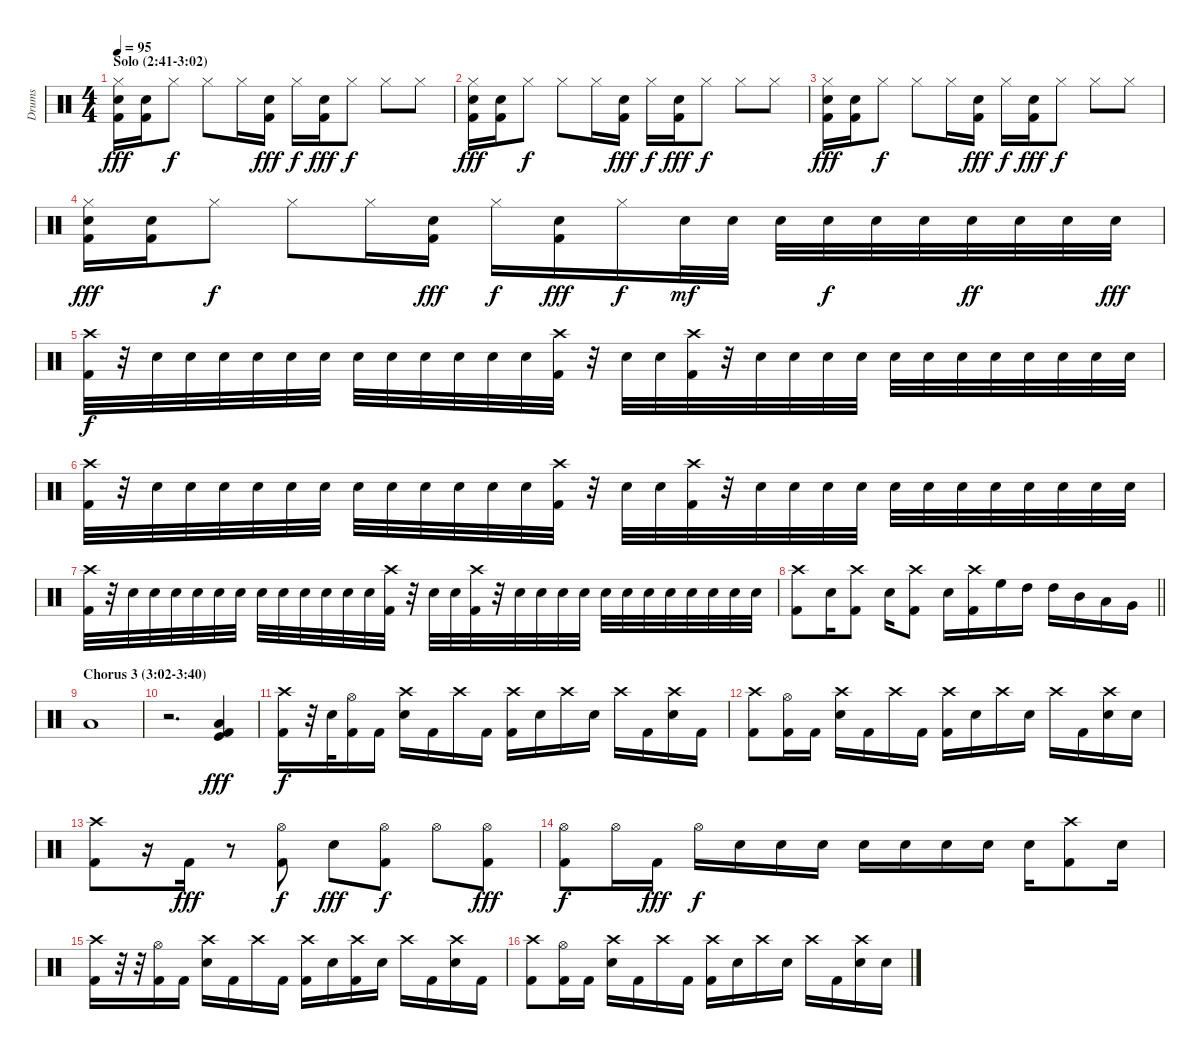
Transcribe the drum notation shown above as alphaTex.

\track ("Drums" "Drums") {instrument percussion}
\staff {score}
\articulation defaults
\ts (4 4)
\section ("" "Solo (2:41-3:02)")
\tempo 95
\clef neutral
\ks c
("Hi-Hat (closed)" "Kick (hit) 2" "Snare (hit) 2").16{dy fff} ("Kick (hit) 2" "Snare (hit) 2").16 "Hi-Hat (closed)".8{dy f} "Hi-Hat (closed)".8 "Hi-Hat (closed)".16 ("Kick (hit) 2" "Snare (hit) 2").16{dy fff} "Hi-Hat (closed)".16{dy f} ("Kick (hit) 2" "Snare (hit) 2").16{dy fff} "Hi-Hat (closed)".8{dy f} "Hi-Hat (closed)".8 "Hi-Hat (closed)".8 |
("Hi-Hat (closed)" "Kick (hit) 2" "Snare (hit) 2").16{dy fff} ("Kick (hit) 2" "Snare (hit) 2").16 "Hi-Hat (closed)".8{dy f} "Hi-Hat (closed)".8 "Hi-Hat (closed)".16 ("Kick (hit) 2" "Snare (hit) 2").16{dy fff} "Hi-Hat (closed)".16{dy f} ("Kick (hit) 2" "Snare (hit) 2").16{dy fff} "Hi-Hat (closed)".8{dy f} "Hi-Hat (closed)".8 "Hi-Hat (closed)".8 |
("Hi-Hat (closed)" "Kick (hit) 2" "Snare (hit) 2").16{dy fff} ("Kick (hit) 2" "Snare (hit) 2").16 "Hi-Hat (closed)".8{dy f} "Hi-Hat (closed)".8 "Hi-Hat (closed)".16 ("Kick (hit) 2" "Snare (hit) 2").16{dy fff} "Hi-Hat (closed)".16{dy f} ("Kick (hit) 2" "Snare (hit) 2").16{dy fff} "Hi-Hat (closed)".8{dy f} "Hi-Hat (closed)".8 "Hi-Hat (closed)".8 |
("Hi-Hat (closed)" "Kick (hit) 2" "Snare (hit) 2").16{dy fff} ("Kick (hit) 2" "Snare (hit) 2").16 "Hi-Hat (closed)".8{dy f} "Hi-Hat (closed)".8 "Hi-Hat (closed)".16 ("Kick (hit) 2" "Snare (hit) 2").16{dy fff} "Hi-Hat (closed)".16{dy f} ("Kick (hit) 2" "Snare (hit) 2").16{dy fff} "Hi-Hat (closed)".16{dy f} "Snare (hit) 2".32{dy mf} "Snare (hit) 2".32 "Snare (hit) 2".32 "Snare (hit) 2".32{dy f} "Snare (hit) 2".32 "Snare (hit) 2".32 "Snare (hit) 2".32{dy ff} "Snare (hit) 2".32 "Snare (hit) 2".32 "Snare (hit) 2".32{dy fff} |
("Crash high (hit)" "Kick (hit) 2").32{dy f} r.32 "Snare (hit) 2".32 "Snare (hit) 2".32 "Snare (hit) 2".32 "Snare (hit) 2".32 "Snare (hit) 2".32 "Snare (hit) 2".32 "Snare (hit) 2".32 "Snare (hit) 2".32 "Snare (hit) 2".32 "Snare (hit) 2".32 "Snare (hit) 2".32 "Snare (hit) 2".32 ("Kick (hit) 2" "Crash high (hit)").32 r.32 "Snare (hit) 2".32 "Snare (hit) 2".32 ("Kick (hit) 2" "Crash high (hit)").32 r.32 "Snare (hit) 2".32 "Snare (hit) 2".32 "Snare (hit) 2".32 "Snare (hit) 2".32 "Snare (hit) 2".32 "Snare (hit) 2".32 "Snare (hit) 2".32 "Snare (hit) 2".32 "Snare (hit) 2".32 "Snare (hit) 2".32 "Snare (hit) 2".32 "Snare (hit) 2".32 |
("Crash high (hit)" "Kick (hit) 2").32 r.32 "Snare (hit) 2".32 "Snare (hit) 2".32 "Snare (hit) 2".32 "Snare (hit) 2".32 "Snare (hit) 2".32 "Snare (hit) 2".32 "Snare (hit) 2".32 "Snare (hit) 2".32 "Snare (hit) 2".32 "Snare (hit) 2".32 "Snare (hit) 2".32 "Snare (hit) 2".32 ("Kick (hit) 2" "Crash high (hit)").32 r.32 "Snare (hit) 2".32 "Snare (hit) 2".32 ("Kick (hit) 2" "Crash high (hit)").32 r.32 "Snare (hit) 2".32 "Snare (hit) 2".32 "Snare (hit) 2".32 "Snare (hit) 2".32 "Snare (hit) 2".32 "Snare (hit) 2".32 "Snare (hit) 2".32 "Snare (hit) 2".32 "Snare (hit) 2".32 "Snare (hit) 2".32 "Snare (hit) 2".32 "Snare (hit) 2".32 |
("Crash high (hit)" "Kick (hit) 2").32 r.32 "Snare (hit) 2".32 "Snare (hit) 2".32 "Snare (hit) 2".32 "Snare (hit) 2".32 "Snare (hit) 2".32 "Snare (hit) 2".32 "Snare (hit) 2".32 "Snare (hit) 2".32 "Snare (hit) 2".32 "Snare (hit) 2".32 "Snare (hit) 2".32 "Snare (hit) 2".32 ("Kick (hit) 2" "Crash high (hit)").32 r.32 "Snare (hit) 2".32 "Snare (hit) 2".32 ("Kick (hit) 2" "Crash high (hit)").32 r.32 "Snare (hit) 2".32 "Snare (hit) 2".32 "Snare (hit) 2".32 "Snare (hit) 2".32 "Snare (hit) 2".32 "Snare (hit) 2".32 "Snare (hit) 2".32 "Snare (hit) 2".32 "Snare (hit) 2".32 "Snare (hit) 2".32 "Snare (hit) 2".32 "Snare (hit) 2".32 |
\barLineRight lightlight
("Crash high (hit)" "Kick (hit) 2").8 "Snare (hit) 2".16 ("Crash high (hit)" "Kick (hit) 2").8 "Snare (hit) 2".16 ("Kick (hit) 2" "Crash high (hit)").8 "Snare (hit) 2".16 ("Crash high (hit)" "Kick (hit) 2").16 "High Floor Tom (hit)".16 "High Tom (hit)".16 "High Tom (hit)".16 "Mid Tom (hit)".16 "Low Tom (hit)".16 "Very Low Tom (hit)".16 |
\section ("" "Chorus 3 (3:02-3:40)")
"Low Floor Tom (hit)".1 |
r.2{d} ("Low Floor Tom (hit)" "Kick (hit)" "Kick (hit) 2").4{dy fff} |
("Crash high (hit)" "Kick (hit) 2").16{dy f} r.32 "Snare (hit) 2".32 ("Hi-Hat (open)" "Kick (hit) 2").16 "Kick (hit) 2".16 ("Crash high (hit)" "Snare (hit) 2").16 "Kick (hit) 2".16 "Crash high (hit)".16 "Kick (hit) 2".16 ("Crash high (hit)" "Kick (hit) 2").16 "Snare (hit) 2".16 "Crash high (hit)".16 "Snare (hit) 2".16 "Crash high (hit)".16 "Kick (hit) 2".16 ("Crash high (hit)" "Snare (hit) 2").16 "Kick (hit) 2".16 |
("Crash high (hit)" "Kick (hit) 2").8 ("Hi-Hat (open)" "Kick (hit) 2").16 "Kick (hit) 2".16 ("Crash high (hit)" "Snare (hit) 2").16 "Kick (hit) 2".16 "Crash high (hit)".16 "Kick (hit) 2".16 ("Crash high (hit)" "Kick (hit) 2").16 "Snare (hit) 2".16 "Crash high (hit)".16 "Snare (hit) 2".16 "Crash high (hit)".16 "Kick (hit) 2".16 ("Crash high (hit)" "Snare (hit) 2").16 "Snare (hit) 2".16 |
("Crash high (hit)" "Kick (hit) 2").8 r.16 "Kick (hit) 2".16{dy fff} r.8 ("Hi-Hat (open)" "Kick (hit) 2").8{dy f} "Snare (hit) 2".8{dy fff} ("Hi-Hat (open)" "Kick (hit) 2").8{dy f} "Hi-Hat (open)".8 ("Hi-Hat (open)" "Kick (hit) 2").8{dy fff} |
("Hi-Hat (open)" "Kick (hit) 2").8{dy f} "Hi-Hat (open)".16 "Kick (hit) 2".16{dy fff} "Hi-Hat (open)".16{dy f} "Snare (hit) 2".16 "Snare (hit) 2".16 "Snare (hit) 2".16 "Snare (hit) 2".16 "Snare (hit) 2".16 "Snare (hit) 2".16 "Snare (hit) 2".16 "Snare (hit) 2".16 ("Crash high (hit)" "Kick (hit) 2").8 "Snare (hit) 2".16 |
("Crash high (hit)" "Kick (hit) 2").16 r.32 r.32 ("Hi-Hat (open)" "Kick (hit) 2").16 "Kick (hit) 2".16 ("Crash high (hit)" "Snare (hit) 2").16 "Kick (hit) 2".16 "Crash high (hit)".16 "Kick (hit) 2".16 ("Crash high (hit)" "Kick (hit) 2").16 "Snare (hit) 2".16 ("Crash high (hit)" "Kick (hit) 2").16 "Snare (hit) 2".16 "Crash high (hit)".16 "Kick (hit) 2".16 ("Crash high (hit)" "Snare (hit) 2").16 "Kick (hit) 2".16 |
("Crash high (hit)" "Kick (hit) 2").8 ("Hi-Hat (open)" "Kick (hit) 2").16 "Kick (hit) 2".16 ("Crash high (hit)" "Snare (hit) 2").16 "Kick (hit) 2".16 "Crash high (hit)".16 "Kick (hit) 2".16 ("Crash high (hit)" "Kick (hit) 2").16 "Snare (hit) 2".16 "Crash high (hit)".16 "Snare (hit) 2".16 "Crash high (hit)".16 "Kick (hit) 2".16 ("Crash high (hit)" "Snare (hit) 2").16 "Snare (hit) 2".16
